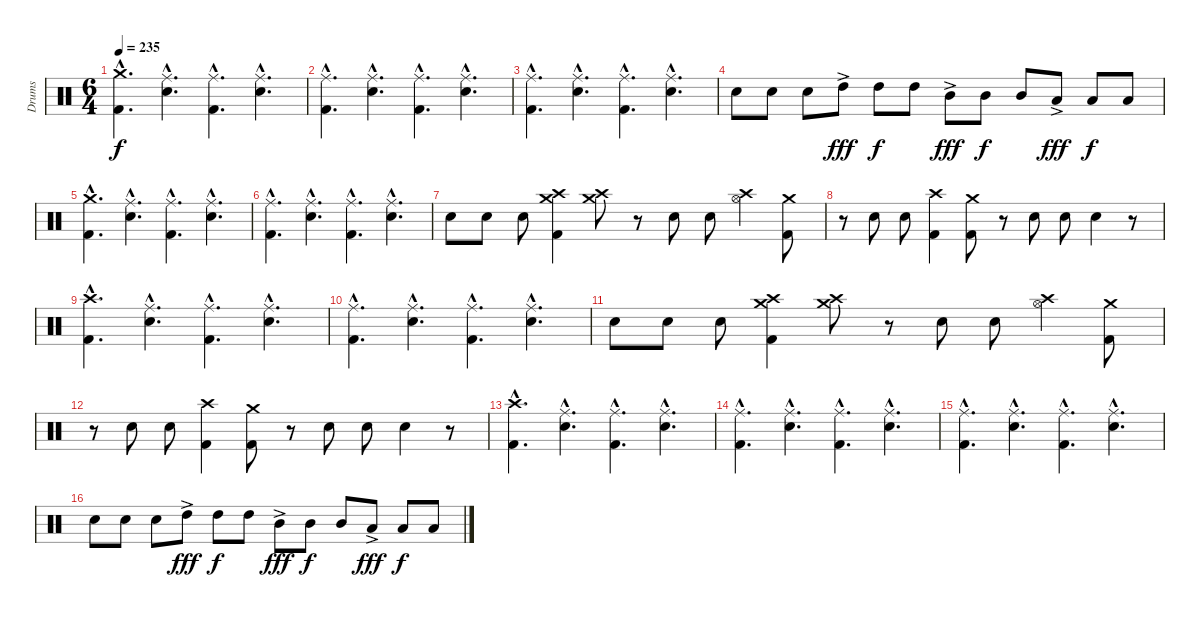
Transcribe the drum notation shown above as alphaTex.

\track ("Drums" "Drums") {instrument percussion}
\staff {score}
\articulation defaults
\ts (6 4)
\tempo 235
\clef neutral
\ks c
("Crash medium (hit)"{hac} "Kick (hit) 2"{hac}).4{d dy f} ("Ride (middle)"{hac} "Snare (hit) 2"{hac}).4{d} ("Ride (middle)"{hac} "Kick (hit) 2"{hac}).4{d} ("Ride (middle)"{hac} "Snare (hit) 2"{hac}).4{d} |
("Ride (middle)"{hac} "Kick (hit) 2"{hac}).4{d} ("Ride (middle)"{hac} "Snare (hit) 2"{hac}).4{d} ("Ride (middle)"{hac} "Kick (hit) 2"{hac}).4{d} ("Ride (middle)"{hac} "Snare (hit) 2"{hac}).4{d} |
("Ride (middle)"{hac} "Kick (hit) 2"{hac}).4{d} ("Ride (middle)"{hac} "Snare (hit) 2"{hac}).4{d} ("Ride (middle)"{hac} "Kick (hit) 2"{hac}).4{d} ("Ride (middle)"{hac} "Snare (hit) 2"{hac}).4{d} |
"Snare (hit) 2".8 "Snare (hit) 2".8 "Snare (hit) 2".8 "High Tom (hit)"{ac}.8{dy fff} "High Tom (hit)".8{dy f} "High Tom (hit)".8 "Mid Tom (hit)"{ac}.8{dy fff} "Mid Tom (hit)".8{dy f} "Mid Tom (hit)".8 "Low Tom (hit)"{ac}.8{dy fff} "Low Tom (hit)".8{dy f} "Low Tom (hit)".8 |
("Crash medium (hit)"{hac} "Kick (hit) 2"{hac}).4{d} ("Ride (middle)"{hac} "Snare (hit) 2"{hac}).4{d} ("Ride (middle)"{hac} "Kick (hit) 2"{hac}).4{d} ("Ride (middle)"{hac} "Snare (hit) 2"{hac}).4{d} |
("Ride (middle)"{hac} "Kick (hit) 2"{hac}).4{d} ("Ride (middle)"{hac} "Snare (hit) 2"{hac}).4{d} ("Ride (middle)"{hac} "Kick (hit) 2"{hac}).4{d} ("Ride (middle)"{hac} "Snare (hit) 2"{hac}).4{d} |
"Snare (hit) 2".8 "Snare (hit) 2".8 "Snare (hit) 2".8 ("Crash medium (hit)" "Crash high (hit)" "Kick (hit) 2").4 ("Crash high (hit)" "Crash medium (hit)").8 r.8 "Snare (hit) 2".8 "Snare (hit) 2".8 ("Crash high (hit)" "Hi-Hat (open)").4 ("Crash medium (hit)" "Kick (hit) 2").8 |
r.8 "Snare (hit) 2".8 "Snare (hit) 2".8 ("Crash high (hit)" "Kick (hit) 2").4 ("Crash medium (hit)" "Kick (hit) 2").8 r.8 "Snare (hit) 2".8 "Snare (hit) 2".8 "Snare (hit) 2".4 r.8 |
("Crash high (hit)"{hac} "Kick (hit) 2"{hac}).4{d} ("Ride (middle)"{hac} "Snare (hit) 2"{hac}).4{d} ("Ride (middle)"{hac} "Kick (hit) 2"{hac}).4{d} ("Ride (middle)"{hac} "Snare (hit) 2"{hac}).4{d} |
("Ride (middle)"{hac} "Kick (hit) 2"{hac}).4{d} ("Ride (middle)"{hac} "Snare (hit) 2"{hac}).4{d} ("Ride (middle)"{hac} "Kick (hit) 2"{hac}).4{d} ("Ride (middle)"{hac} "Snare (hit) 2"{hac}).4{d} |
"Snare (hit) 2".8 "Snare (hit) 2".8 "Snare (hit) 2".8 ("Crash medium (hit)" "Crash high (hit)" "Kick (hit) 2").4 ("Crash high (hit)" "Crash medium (hit)").8 r.8 "Snare (hit) 2".8 "Snare (hit) 2".8 ("Crash high (hit)" "Hi-Hat (open)").4 ("Crash medium (hit)" "Kick (hit) 2").8 |
r.8 "Snare (hit) 2".8 "Snare (hit) 2".8 ("Crash high (hit)" "Kick (hit) 2").4 ("Crash medium (hit)" "Kick (hit) 2").8 r.8 "Snare (hit) 2".8 "Snare (hit) 2".8 "Snare (hit) 2".4 r.8 |
("Crash high (hit)"{hac} "Kick (hit) 2"{hac}).4{d} ("Ride (middle)"{hac} "Snare (hit) 2"{hac}).4{d} ("Ride (middle)"{hac} "Kick (hit) 2"{hac}).4{d} ("Ride (middle)"{hac} "Snare (hit) 2"{hac}).4{d} |
("Ride (middle)"{hac} "Kick (hit) 2"{hac}).4{d} ("Ride (middle)"{hac} "Snare (hit) 2"{hac}).4{d} ("Ride (middle)"{hac} "Kick (hit) 2"{hac}).4{d} ("Ride (middle)"{hac} "Snare (hit) 2"{hac}).4{d} |
("Ride (middle)"{hac} "Kick (hit) 2"{hac}).4{d} ("Ride (middle)"{hac} "Snare (hit) 2"{hac}).4{d} ("Ride (middle)"{hac} "Kick (hit) 2"{hac}).4{d} ("Ride (middle)"{hac} "Snare (hit) 2"{hac}).4{d} |
"Snare (hit) 2".8 "Snare (hit) 2".8 "Snare (hit) 2".8 "High Tom (hit)"{ac}.8{dy fff} "High Tom (hit)".8{dy f} "High Tom (hit)".8 "Mid Tom (hit)"{ac}.8{dy fff} "Mid Tom (hit)".8{dy f} "Mid Tom (hit)".8 "Low Tom (hit)"{ac}.8{dy fff} "Low Tom (hit)".8{dy f} "Low Tom (hit)".8
